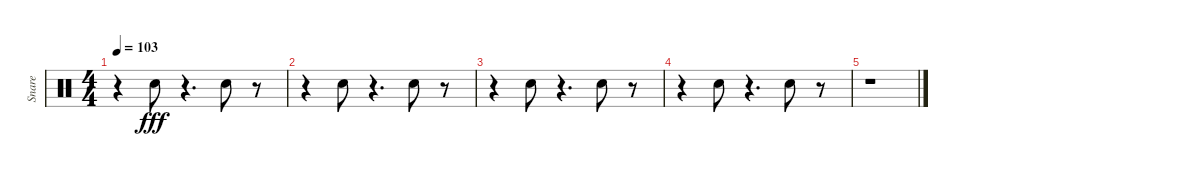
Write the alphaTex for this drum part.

\track ("Snare" "Snare") {instrument percussion}
\staff {score}
\articulation defaults
\ts (4 4)
\tempo 103
\clef neutral
\ks c
r.4{dy fff} "Electric Snare (hit)".8 r.4{d} "Electric Snare (hit)".8 r.8 |
r.4 "Electric Snare (hit)".8 r.4{d} "Electric Snare (hit)".8 r.8 |
r.4 "Electric Snare (hit)".8 r.4{d} "Electric Snare (hit)".8 r.8 |
r.4 "Electric Snare (hit)".8 r.4{d} "Electric Snare (hit)".8 r.8 |
r.1
